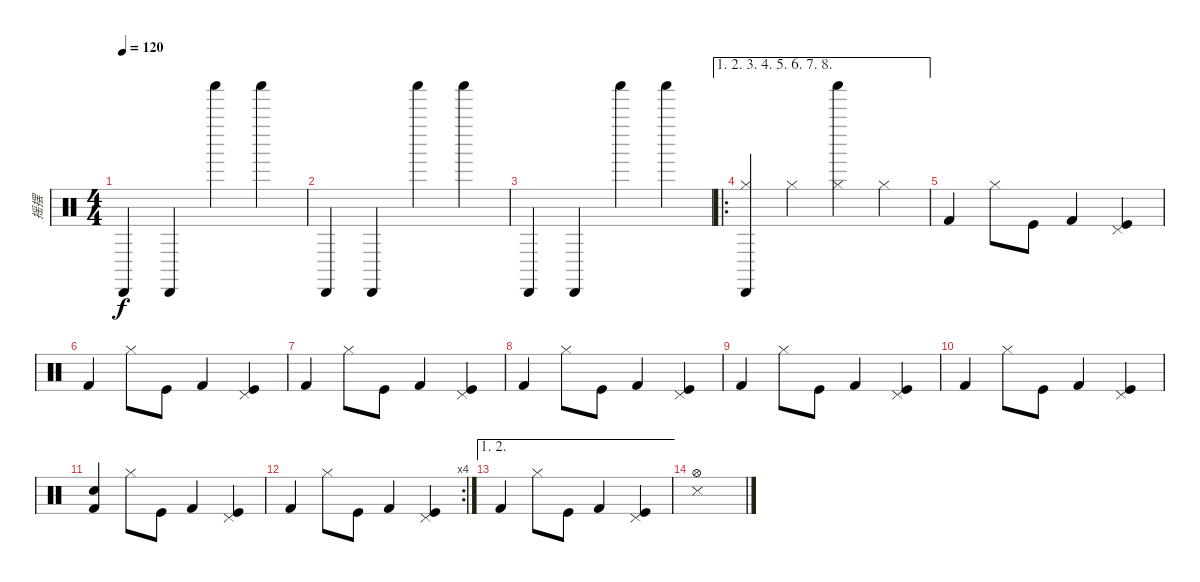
\track ("摇摆" "摇摆") {instrument percussion}
\staff {score}
\articulation defaults
\ts (4 4)
\tempo 120
\clef neutral
\ks c "Cabasa (hit)".4{dy f} "Cabasa (hit)".4 "Shaker (hit)".4 "Shaker (hit)".4
|
"Cabasa (hit)".4 "Cabasa (hit)".4 "Shaker (hit)".4 "Shaker (hit)".4 |
"Cabasa (hit)".4 "Cabasa (hit)".4 "Shaker (hit)".4 "Shaker (hit)".4 |
\ae (1 2 3 4 5 6 7 8)
\ro
("Hi-Hat (closed)" "Cabasa (hit)").4 "Hi-Hat (closed)".4 ("Hi-Hat (closed)" "Shaker (hit)").4 "Hi-Hat (closed)".4 |
"Kick (hit) 2".4 "Hi-Hat (closed)".8 "Kick (hit)".8 "Kick (hit) 2".4 ("Pedal Hi-Hat (hit)" "Kick (hit)").4 |
"Kick (hit) 2".4 "Hi-Hat (closed)".8 "Kick (hit)".8 "Kick (hit) 2".4 ("Pedal Hi-Hat (hit)" "Kick (hit)").4 |
"Kick (hit) 2".4 "Hi-Hat (closed)".8 "Kick (hit)".8 "Kick (hit) 2".4 ("Pedal Hi-Hat (hit)" "Kick (hit)").4 |
"Kick (hit) 2".4 "Hi-Hat (closed)".8 "Kick (hit)".8 "Kick (hit) 2".4 ("Pedal Hi-Hat (hit)" "Kick (hit)").4 |
"Kick (hit) 2".4 "Hi-Hat (closed)".8 "Kick (hit)".8 "Kick (hit) 2".4 ("Pedal Hi-Hat (hit)" "Kick (hit)").4 |
"Kick (hit) 2".4 "Hi-Hat (closed)".8 "Kick (hit)".8 "Kick (hit) 2".4 ("Pedal Hi-Hat (hit)" "Kick (hit)").4 |
("Kick (hit) 2" "Snare (hit)").4 "Hi-Hat (closed)".8 "Kick (hit)".8 "Kick (hit) 2".4 ("Pedal Hi-Hat (hit)" "Kick (hit)").4 |
\rc 4 "Kick (hit) 2".4 "Hi-Hat (closed)".8 "Kick (hit)".8 "Kick (hit) 2".4
("Pedal Hi-Hat (hit)" "Kick (hit)").4 |
\ae (1 2)
"Kick (hit) 2".4 "Hi-Hat (closed)".8 "Kick (hit)".8 "Kick (hit) 2".4 ("Pedal Hi-Hat (hit)" "Kick (hit)").4 |
("Hi-Hat (open)" "Snare (side stick) 3").1
